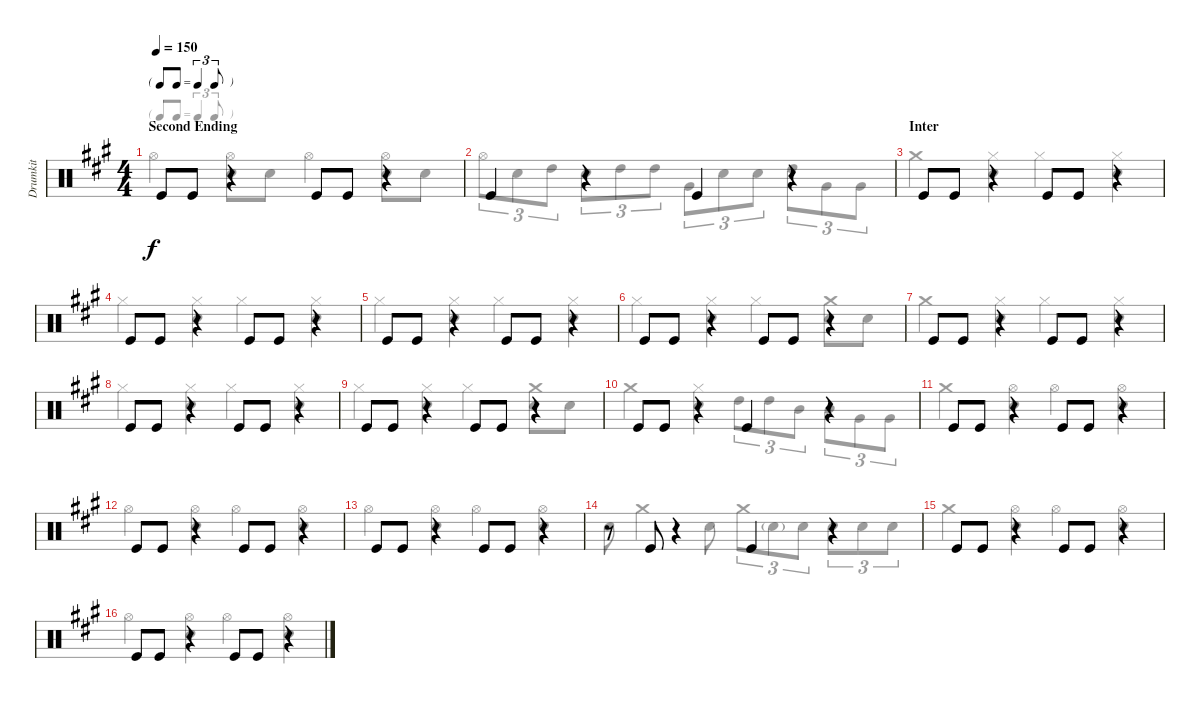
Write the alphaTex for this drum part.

\track ("Drumkit" "Drumkit") {instrument percussion}
\staff {score}
\articulation defaults
\voice
\ts (4 4)
\tf triplet8th
\section ("" "Second Ending")
\tempo 150
\clef neutral
\ks a "Kick (hit)".8{dy f} "Kick (hit)".8
r.4 "Kick (hit)".8 "Kick (hit)".8 r.4 |
"Kick (hit)".4 r.4 "Kick (hit)".4 r.4 |
\section ("" "Inter")
"Kick (hit)".8 "Kick (hit)".8 r.4 "Kick (hit)".8 "Kick (hit)".8 r.4 |
"Kick (hit)".8 "Kick (hit)".8 r.4 "Kick (hit)".8 "Kick (hit)".8 r.4 |
"Kick (hit)".8 "Kick (hit)".8 r.4 "Kick (hit)".8 "Kick (hit)".8 r.4 |
"Kick (hit)".8 "Kick (hit)".8 r.4 "Kick (hit)".8 "Kick (hit)".8 r.4 |
"Kick (hit)".8 "Kick (hit)".8 r.4 "Kick (hit)".8 "Kick (hit)".8 r.4 |
"Kick (hit)".8 "Kick (hit)".8 r.4 "Kick (hit)".8 "Kick (hit)".8 r.4 |
"Kick (hit)".8 "Kick (hit)".8 r.4 "Kick (hit)".8 "Kick (hit)".8 r.4 |
"Kick (hit)".8 "Kick (hit)".8 r.4 "Kick (hit)".4 r.4 |
\section ("" "")
"Kick (hit)".8 "Kick (hit)".8 r.4 "Kick (hit)".8 "Kick (hit)".8 r.4 |
"Kick (hit)".8 "Kick (hit)".8 r.4 "Kick (hit)".8 "Kick (hit)".8 r.4 |
"Kick (hit)".8 "Kick (hit)".8 r.4 "Kick (hit)".8 "Kick (hit)".8 r.4 |
r.8 "Kick (hit)".8 r.4 "Kick (hit)".4 r.4 |
"Kick (hit)".8 "Kick (hit)".8 r.4 "Kick (hit)".8 "Kick (hit)".8 r.4 |
"Kick (hit)".8 "Kick (hit)".8 r.4 "Kick (hit)".8 "Kick (hit)".8 r.4
\voice
\clef neutral
\ottava regular
\simile none
\ks a "Hi-Hat (open)".4{dy f}
("Hi-Hat (open)" "Snare (hit) 2").8 "Snare (hit) 2".8 "Hi-Hat (open)".4 ("Hi-Hat (open)" "Snare (hit) 2").8 "Snare (hit) 2".8 |
"Hi-Hat (open)".8{tu (3 2)} "Snare (hit) 2".8{tu (3 2)} "High Tom (hit)".8{tu (3 2)} "Snare (hit) 2".8{tu (3 2)} "High Tom (hit)".8{tu (3 2)} "High Tom (hit)".8{tu (3 2)} "Very Low Tom (hit)".8{tu (3 2)} "Snare (hit) 2".8{tu (3 2)} "Snare (hit) 2".8{tu (3 2)} "High Tom (hit)".8{tu (3 2)} "Very Low Tom (hit)".8{tu (3 2)} "Very Low Tom (hit)".8{tu (3 2)} |
"Crash medium (hit)".4 ("Hi-Hat (closed)" "Snare (hit) 2").4 "Hi-Hat (closed)".4 ("Hi-Hat (closed)" "Snare (hit) 2").4 |
"Hi-Hat (closed)".4 ("Hi-Hat (closed)" "Snare (hit) 2").4 "Hi-Hat (closed)".4 ("Hi-Hat (closed)" "Snare (hit) 2").4 |
"Hi-Hat (closed)".4 ("Hi-Hat (closed)" "Snare (hit) 2").4 "Hi-Hat (closed)".4 ("Hi-Hat (closed)" "Snare (hit) 2").4 |
"Hi-Hat (closed)".4 ("Hi-Hat (closed)" "Snare (hit) 2").4 "Hi-Hat (closed)".4 ("Snare (hit) 2" "Crash medium (hit)").8 "Snare (hit) 2".8 |
"Crash medium (hit)".4 ("Hi-Hat (closed)" "Snare (hit) 2").4 "Hi-Hat (closed)".4 ("Hi-Hat (closed)" "Snare (hit) 2").4 |
"Hi-Hat (closed)".4 ("Hi-Hat (closed)" "Snare (hit) 2").4 "Hi-Hat (closed)".4 ("Hi-Hat (closed)" "Snare (hit) 2").4 |
"Hi-Hat (closed)".4 ("Hi-Hat (closed)" "Snare (hit) 2").4 "Hi-Hat (closed)".4 ("Snare (hit) 2" "Crash medium (hit)").8 "Snare (hit) 2".8 |
"Crash medium (hit)".4 ("Hi-Hat (closed)" "Snare (hit) 2").4 "High Tom (hit)".8{tu (3 2)} "High Tom (hit)".8{tu (3 2)} "Mid Tom (hit)".8{tu (3 2)} "Mid Tom (hit)".8{tu (3 2)} "Very Low Tom (hit)".8{tu (3 2)} "Very Low Tom (hit)".8{tu (3 2)} |
"Crash medium (hit)".4 ("Hi-Hat (open)" "Snare (hit) 2").4 "Hi-Hat (open)".4 ("Hi-Hat (open)" "Snare (hit) 2").4 |
"Hi-Hat (open)".4 ("Hi-Hat (open)" "Snare (hit) 2").4 "Hi-Hat (open)".4 ("Hi-Hat (open)" "Snare (hit) 2").4 |
"Hi-Hat (open)".4 ("Hi-Hat (open)" "Snare (hit) 2").4 "Hi-Hat (open)".4 ("Hi-Hat (open)" "Snare (hit) 2").4 |
"Snare (hit) 2".8 "Crash medium (hit)".4 "Snare (hit) 2".8 "Crash medium (hit)".8{tu (3 2)} "Snare (hit) 2"{g}.8{tu (3 2)} "Snare (hit) 2".8{tu (3 2)} "Snare (hit) 2".8{tu (3 2)} "Snare (hit) 2".8{tu (3 2)} "Snare (hit) 2".8{tu (3 2)} |
"Crash medium (hit)".4 ("Hi-Hat (open)" "Snare (hit) 2").4 "Hi-Hat (open)".4 ("Hi-Hat (open)" "Snare (hit) 2").4 |
"Hi-Hat (open)".4 ("Hi-Hat (open)" "Snare (hit) 2").4 "Hi-Hat (open)".4 ("Hi-Hat (open)" "Snare (hit) 2").4
